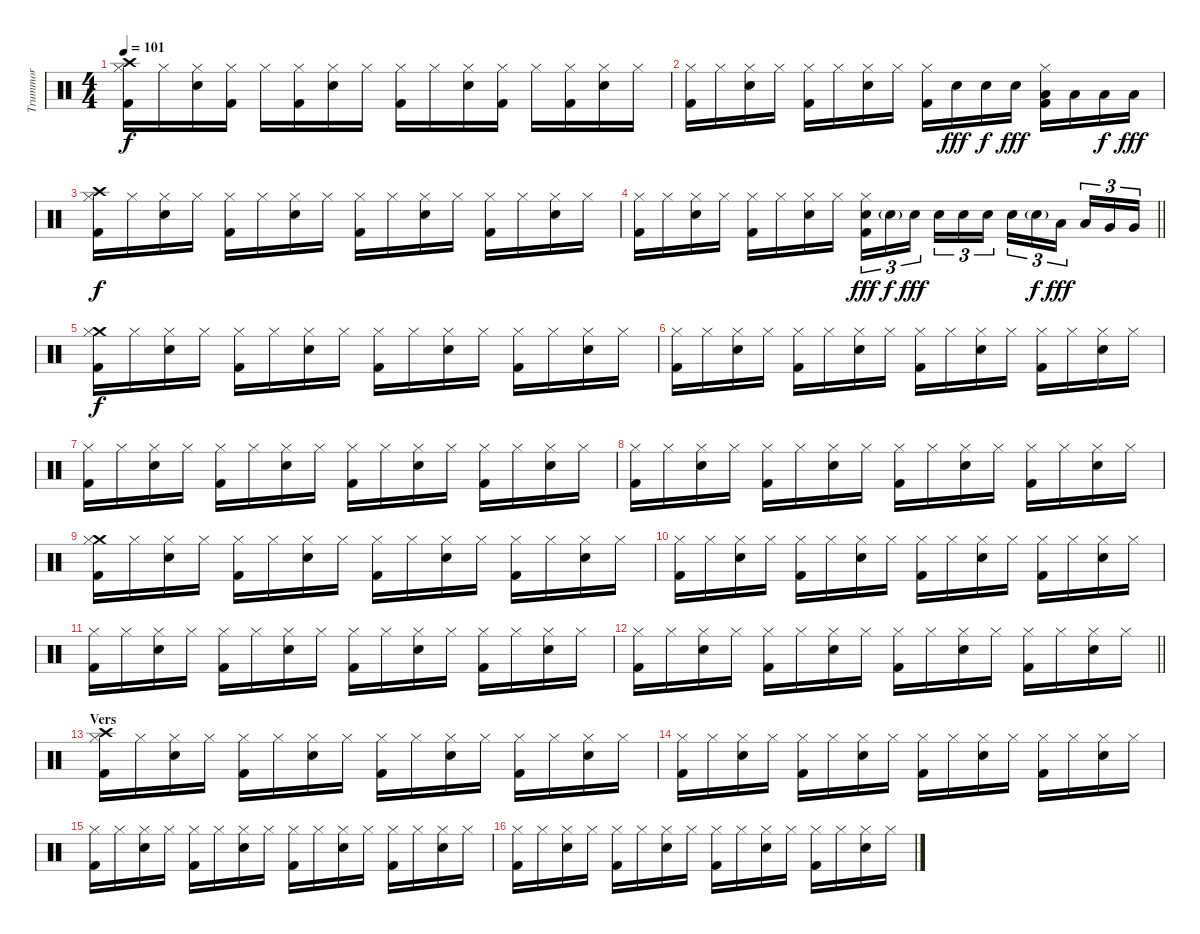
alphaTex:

\track ("Trummor" "Trummor") {instrument percussion}
\staff {score}
\articulation defaults
\ts (4 4)
\tempo 101
\clef neutral
\ks c
("Crash high (hit)" "Hi-Hat (closed)" "Kick (hit) 2").16{dy f} "Hi-Hat (closed)".16 ("Hi-Hat (closed)" "Electric Snare (hit)").16 ("Hi-Hat (closed)" "Kick (hit) 2").16 "Hi-Hat (closed)".16 ("Hi-Hat (closed)" "Kick (hit) 2").16 ("Hi-Hat (closed)" "Electric Snare (hit)").16 "Hi-Hat (closed)".16 ("Hi-Hat (closed)" "Kick (hit) 2").16 "Hi-Hat (closed)".16 ("Hi-Hat (closed)" "Electric Snare (hit)").16 ("Hi-Hat (closed)" "Kick (hit) 2").16 "Hi-Hat (closed)".16 ("Hi-Hat (closed)" "Kick (hit) 2").16 ("Hi-Hat (closed)" "Electric Snare (hit)").16 "Hi-Hat (closed)".16 |
("Hi-Hat (closed)" "Kick (hit) 2").16 "Hi-Hat (closed)".16 ("Hi-Hat (closed)" "Electric Snare (hit)").16 "Hi-Hat (closed)".16 ("Hi-Hat (closed)" "Kick (hit) 2").16 "Hi-Hat (closed)".16 ("Hi-Hat (closed)" "Electric Snare (hit)").16 "Hi-Hat (closed)".16 ("Hi-Hat (closed)" "Kick (hit) 2").16 "Electric Snare (hit)".16{dy fff} "Electric Snare (hit)".16{dy f} "Electric Snare (hit)".16{dy fff} ("Hi-Hat (closed)" "Low Tom (hit)" "Kick (hit) 2").16 "Low Tom (hit)".16 "Low Tom (hit)".16{dy f} "Low Tom (hit)".16{dy fff} |
("Crash high (hit)" "Hi-Hat (closed)" "Kick (hit) 2").16{dy f} "Hi-Hat (closed)".16 ("Hi-Hat (closed)" "Electric Snare (hit)").16 "Hi-Hat (closed)".16 ("Hi-Hat (closed)" "Kick (hit) 2").16 "Hi-Hat (closed)".16 ("Hi-Hat (closed)" "Electric Snare (hit)").16 "Hi-Hat (closed)".16 ("Hi-Hat (closed)" "Kick (hit) 2").16 "Hi-Hat (closed)".16 ("Hi-Hat (closed)" "Electric Snare (hit)").16 "Hi-Hat (closed)".16 ("Hi-Hat (closed)" "Kick (hit) 2").16 "Hi-Hat (closed)".16 ("Hi-Hat (closed)" "Electric Snare (hit)").16 "Hi-Hat (closed)".16 |
\barLineRight lightlight
("Hi-Hat (closed)" "Kick (hit) 2").16 "Hi-Hat (closed)".16 ("Hi-Hat (closed)" "Electric Snare (hit)").16 "Hi-Hat (closed)".16 ("Hi-Hat (closed)" "Kick (hit) 2").16 "Hi-Hat (closed)".16 ("Hi-Hat (closed)" "Electric Snare (hit)").16 "Hi-Hat (closed)".16 ("Electric Snare (hit)" "Hi-Hat (closed)" "Kick (hit) 2").16{tu (3 2) dy fff} "Electric Snare (hit)"{g}.16{tu (3 2) dy f} "Electric Snare (hit)".16{tu (3 2) dy fff beam splitsecondary} "Electric Snare (hit)".16{tu (3 2)} "Electric Snare (hit)".16{tu (3 2)} "Electric Snare (hit)".16{tu (3 2)} "Snare (hit) 2".16{tu (3 2)} "Electric Snare (hit)"{g}.16{tu (3 2) dy f} "Low Tom (hit)".16{tu (3 2) dy fff beam splitsecondary} "Low Tom (hit)".16{tu (3 2)} "Very Low Tom (hit)".16{tu (3 2)} "Very Low Tom (hit)".16{tu (3 2)} |
("Crash medium (hit)" "Hi-Hat (closed)" "Kick (hit) 2").16{dy f} "Hi-Hat (closed)".16 ("Hi-Hat (closed)" "Electric Snare (hit)").16 "Hi-Hat (closed)".16 ("Hi-Hat (closed)" "Kick (hit) 2").16 "Hi-Hat (closed)".16 ("Hi-Hat (closed)" "Electric Snare (hit)").16 "Hi-Hat (closed)".16 ("Hi-Hat (closed)" "Kick (hit) 2").16 "Hi-Hat (closed)".16 ("Hi-Hat (closed)" "Electric Snare (hit)").16 "Hi-Hat (closed)".16 ("Hi-Hat (closed)" "Kick (hit) 2").16 "Hi-Hat (closed)".16 ("Hi-Hat (closed)" "Electric Snare (hit)").16 "Hi-Hat (closed)".16 |
("Hi-Hat (closed)" "Kick (hit) 2").16 "Hi-Hat (closed)".16 ("Hi-Hat (closed)" "Electric Snare (hit)").16 "Hi-Hat (closed)".16 ("Hi-Hat (closed)" "Kick (hit) 2").16 "Hi-Hat (closed)".16 ("Hi-Hat (closed)" "Electric Snare (hit)").16 "Hi-Hat (closed)".16 ("Hi-Hat (closed)" "Kick (hit) 2").16 "Hi-Hat (closed)".16 ("Hi-Hat (closed)" "Electric Snare (hit)").16 "Hi-Hat (closed)".16 ("Hi-Hat (closed)" "Kick (hit) 2").16 "Hi-Hat (closed)".16 ("Hi-Hat (closed)" "Electric Snare (hit)").16 "Hi-Hat (closed)".16 |
("Hi-Hat (closed)" "Kick (hit) 2").16 "Hi-Hat (closed)".16 ("Hi-Hat (closed)" "Electric Snare (hit)").16 "Hi-Hat (closed)".16 ("Hi-Hat (closed)" "Kick (hit) 2").16 "Hi-Hat (closed)".16 ("Hi-Hat (closed)" "Electric Snare (hit)").16 "Hi-Hat (closed)".16 ("Hi-Hat (closed)" "Kick (hit) 2").16 "Hi-Hat (closed)".16 ("Hi-Hat (closed)" "Electric Snare (hit)").16 "Hi-Hat (closed)".16 ("Hi-Hat (closed)" "Kick (hit) 2").16 "Hi-Hat (closed)".16 ("Hi-Hat (closed)" "Electric Snare (hit)").16 "Hi-Hat (closed)".16 |
("Hi-Hat (closed)" "Kick (hit) 2").16 "Hi-Hat (closed)".16 ("Hi-Hat (closed)" "Electric Snare (hit)").16 "Hi-Hat (closed)".16 ("Hi-Hat (closed)" "Kick (hit) 2").16 "Hi-Hat (closed)".16 ("Hi-Hat (closed)" "Electric Snare (hit)").16 "Hi-Hat (closed)".16 ("Hi-Hat (closed)" "Kick (hit) 2").16 "Hi-Hat (closed)".16 ("Hi-Hat (closed)" "Electric Snare (hit)").16 "Hi-Hat (closed)".16 ("Hi-Hat (closed)" "Kick (hit) 2").16 "Hi-Hat (closed)".16 ("Hi-Hat (closed)" "Electric Snare (hit)").16 "Hi-Hat (closed)".16 |
("Crash medium (hit)" "Hi-Hat (closed)" "Kick (hit) 2").16 "Hi-Hat (closed)".16 ("Hi-Hat (closed)" "Electric Snare (hit)").16 "Hi-Hat (closed)".16 ("Hi-Hat (closed)" "Kick (hit) 2").16 "Hi-Hat (closed)".16 ("Hi-Hat (closed)" "Electric Snare (hit)").16 "Hi-Hat (closed)".16 ("Hi-Hat (closed)" "Kick (hit) 2").16 "Hi-Hat (closed)".16 ("Hi-Hat (closed)" "Electric Snare (hit)").16 "Hi-Hat (closed)".16 ("Hi-Hat (closed)" "Kick (hit) 2").16 "Hi-Hat (closed)".16 ("Hi-Hat (closed)" "Electric Snare (hit)").16 "Hi-Hat (closed)".16 |
("Hi-Hat (closed)" "Kick (hit) 2").16 "Hi-Hat (closed)".16 ("Hi-Hat (closed)" "Electric Snare (hit)").16 "Hi-Hat (closed)".16 ("Hi-Hat (closed)" "Kick (hit) 2").16 "Hi-Hat (closed)".16 ("Hi-Hat (closed)" "Electric Snare (hit)").16 "Hi-Hat (closed)".16 ("Hi-Hat (closed)" "Kick (hit) 2").16 "Hi-Hat (closed)".16 ("Hi-Hat (closed)" "Electric Snare (hit)").16 "Hi-Hat (closed)".16 ("Hi-Hat (closed)" "Kick (hit) 2").16 "Hi-Hat (closed)".16 ("Hi-Hat (closed)" "Electric Snare (hit)").16 "Hi-Hat (closed)".16 |
("Hi-Hat (closed)" "Kick (hit) 2").16 "Hi-Hat (closed)".16 ("Hi-Hat (closed)" "Electric Snare (hit)").16 "Hi-Hat (closed)".16 ("Hi-Hat (closed)" "Kick (hit) 2").16 "Hi-Hat (closed)".16 ("Hi-Hat (closed)" "Electric Snare (hit)").16 "Hi-Hat (closed)".16 ("Hi-Hat (closed)" "Kick (hit) 2").16 "Hi-Hat (closed)".16 ("Hi-Hat (closed)" "Electric Snare (hit)").16 "Hi-Hat (closed)".16 ("Hi-Hat (closed)" "Kick (hit) 2").16 "Hi-Hat (closed)".16 ("Hi-Hat (closed)" "Electric Snare (hit)").16 "Hi-Hat (closed)".16 |
\barLineRight lightlight
("Hi-Hat (closed)" "Kick (hit) 2").16 "Hi-Hat (closed)".16 ("Hi-Hat (closed)" "Electric Snare (hit)").16 "Hi-Hat (closed)".16 ("Hi-Hat (closed)" "Kick (hit) 2").16 "Hi-Hat (closed)".16 ("Hi-Hat (closed)" "Electric Snare (hit)").16 "Hi-Hat (closed)".16 ("Hi-Hat (closed)" "Kick (hit) 2").16 "Hi-Hat (closed)".16 ("Hi-Hat (closed)" "Electric Snare (hit)").16 "Hi-Hat (closed)".16 ("Hi-Hat (closed)" "Kick (hit) 2").16 "Hi-Hat (closed)".16 ("Hi-Hat (closed)" "Electric Snare (hit)").16 "Hi-Hat (closed)".16 |
\section ("" "Vers")
("Crash high (hit)" "Hi-Hat (closed)" "Kick (hit) 2").16 "Hi-Hat (closed)".16 ("Hi-Hat (closed)" "Electric Snare (hit)").16 "Hi-Hat (closed)".16 ("Hi-Hat (closed)" "Kick (hit) 2").16 "Hi-Hat (closed)".16 ("Hi-Hat (closed)" "Electric Snare (hit)").16 "Hi-Hat (closed)".16 ("Hi-Hat (closed)" "Kick (hit) 2").16 "Hi-Hat (closed)".16 ("Hi-Hat (closed)" "Electric Snare (hit)").16 "Hi-Hat (closed)".16 ("Hi-Hat (closed)" "Kick (hit) 2").16 "Hi-Hat (closed)".16 ("Hi-Hat (closed)" "Electric Snare (hit)").16 "Hi-Hat (closed)".16 |
("Hi-Hat (closed)" "Kick (hit) 2").16 "Hi-Hat (closed)".16 ("Hi-Hat (closed)" "Electric Snare (hit)").16 "Hi-Hat (closed)".16 ("Hi-Hat (closed)" "Kick (hit) 2").16 "Hi-Hat (closed)".16 ("Hi-Hat (closed)" "Electric Snare (hit)").16 "Hi-Hat (closed)".16 ("Hi-Hat (closed)" "Kick (hit) 2").16 "Hi-Hat (closed)".16 ("Hi-Hat (closed)" "Electric Snare (hit)").16 "Hi-Hat (closed)".16 ("Hi-Hat (closed)" "Kick (hit) 2").16 "Hi-Hat (closed)".16 ("Hi-Hat (closed)" "Electric Snare (hit)").16 "Hi-Hat (closed)".16 |
("Hi-Hat (closed)" "Kick (hit) 2").16 "Hi-Hat (closed)".16 ("Hi-Hat (closed)" "Electric Snare (hit)").16 "Hi-Hat (closed)".16 ("Hi-Hat (closed)" "Kick (hit) 2").16 "Hi-Hat (closed)".16 ("Hi-Hat (closed)" "Electric Snare (hit)").16 "Hi-Hat (closed)".16 ("Hi-Hat (closed)" "Kick (hit) 2").16 "Hi-Hat (closed)".16 ("Hi-Hat (closed)" "Electric Snare (hit)").16 "Hi-Hat (closed)".16 ("Hi-Hat (closed)" "Kick (hit) 2").16 "Hi-Hat (closed)".16 ("Hi-Hat (closed)" "Electric Snare (hit)").16 "Hi-Hat (closed)".16 |
("Hi-Hat (closed)" "Kick (hit) 2").16 "Hi-Hat (closed)".16 ("Hi-Hat (closed)" "Electric Snare (hit)").16 "Hi-Hat (closed)".16 ("Hi-Hat (closed)" "Kick (hit) 2").16 "Hi-Hat (closed)".16 ("Hi-Hat (closed)" "Electric Snare (hit)").16 "Hi-Hat (closed)".16 ("Hi-Hat (closed)" "Kick (hit) 2").16 "Hi-Hat (closed)".16 ("Hi-Hat (closed)" "Electric Snare (hit)").16 "Hi-Hat (closed)".16 ("Hi-Hat (closed)" "Kick (hit) 2").16 "Hi-Hat (closed)".16 ("Hi-Hat (closed)" "Electric Snare (hit)").16 "Hi-Hat (closed)".16
